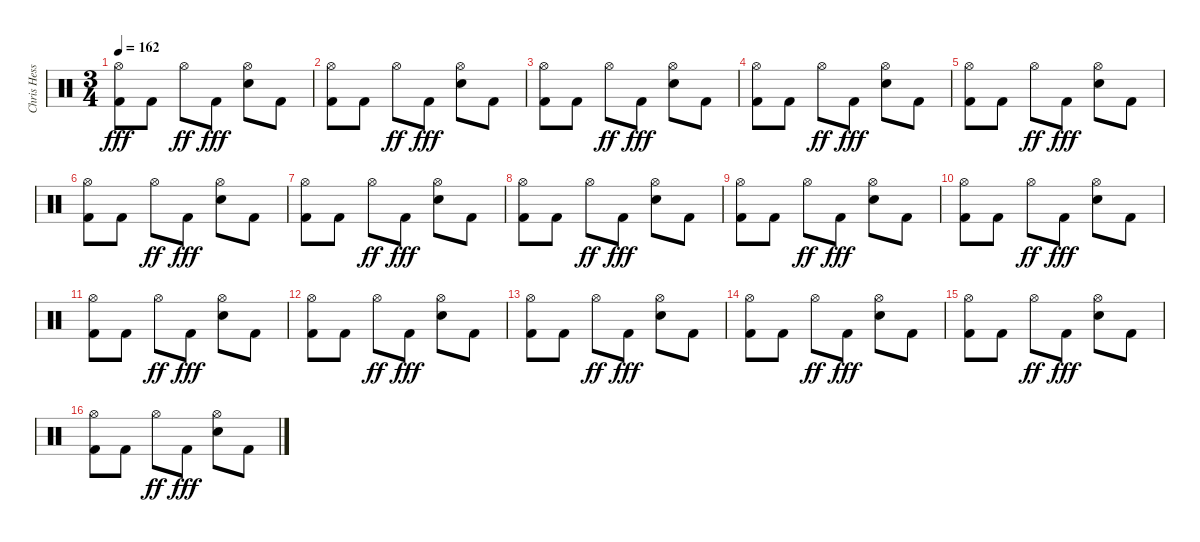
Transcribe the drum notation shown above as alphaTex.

\track ("Chris Hesse" "Chris Hess") {instrument percussion}
\staff {score}
\articulation defaults
\ts (3 4)
\tempo 162
\clef neutral
\ks c
("Hi-Hat (open)" "Kick (hit) 2").8{dy fff} "Kick (hit) 2".8 "Hi-Hat (open)".8{dy ff} "Kick (hit) 2".8{dy fff} ("Hi-Hat (open)" "Snare (hit) 2").8 "Kick (hit) 2".8 |
("Hi-Hat (open)" "Kick (hit) 2").8 "Kick (hit) 2".8 "Hi-Hat (open)".8{dy ff} "Kick (hit) 2".8{dy fff} ("Hi-Hat (open)" "Snare (hit) 2").8 "Kick (hit) 2".8 |
("Hi-Hat (open)" "Kick (hit) 2").8 "Kick (hit) 2".8 "Hi-Hat (open)".8{dy ff} "Kick (hit) 2".8{dy fff} ("Hi-Hat (open)" "Snare (hit) 2").8 "Kick (hit) 2".8 |
("Hi-Hat (open)" "Kick (hit) 2").8 "Kick (hit) 2".8 "Hi-Hat (open)".8{dy ff} "Kick (hit) 2".8{dy fff} ("Hi-Hat (open)" "Snare (hit) 2").8 "Kick (hit) 2".8 |
("Hi-Hat (open)" "Kick (hit) 2").8 "Kick (hit) 2".8 "Hi-Hat (open)".8{dy ff} "Kick (hit) 2".8{dy fff} ("Hi-Hat (open)" "Snare (hit) 2").8 "Kick (hit) 2".8 |
("Hi-Hat (open)" "Kick (hit) 2").8 "Kick (hit) 2".8 "Hi-Hat (open)".8{dy ff} "Kick (hit) 2".8{dy fff} ("Hi-Hat (open)" "Snare (hit) 2").8 "Kick (hit) 2".8 |
("Hi-Hat (open)" "Kick (hit) 2").8 "Kick (hit) 2".8 "Hi-Hat (open)".8{dy ff} "Kick (hit) 2".8{dy fff} ("Hi-Hat (open)" "Snare (hit) 2").8 "Kick (hit) 2".8 |
("Hi-Hat (open)" "Kick (hit) 2").8 "Kick (hit) 2".8 "Hi-Hat (open)".8{dy ff} "Kick (hit) 2".8{dy fff} ("Hi-Hat (open)" "Snare (hit) 2").8 "Kick (hit) 2".8 |
("Hi-Hat (open)" "Kick (hit) 2").8 "Kick (hit) 2".8 "Hi-Hat (open)".8{dy ff} "Kick (hit) 2".8{dy fff} ("Hi-Hat (open)" "Snare (hit) 2").8 "Kick (hit) 2".8 |
("Hi-Hat (open)" "Kick (hit) 2").8 "Kick (hit) 2".8 "Hi-Hat (open)".8{dy ff} "Kick (hit) 2".8{dy fff} ("Hi-Hat (open)" "Snare (hit) 2").8 "Kick (hit) 2".8 |
("Hi-Hat (open)" "Kick (hit) 2").8 "Kick (hit) 2".8 "Hi-Hat (open)".8{dy ff} "Kick (hit) 2".8{dy fff} ("Hi-Hat (open)" "Snare (hit) 2").8 "Kick (hit) 2".8 |
("Hi-Hat (open)" "Kick (hit) 2").8 "Kick (hit) 2".8 "Hi-Hat (open)".8{dy ff} "Kick (hit) 2".8{dy fff} ("Hi-Hat (open)" "Snare (hit) 2").8 "Kick (hit) 2".8 |
("Hi-Hat (open)" "Kick (hit) 2").8 "Kick (hit) 2".8 "Hi-Hat (open)".8{dy ff} "Kick (hit) 2".8{dy fff} ("Hi-Hat (open)" "Snare (hit) 2").8 "Kick (hit) 2".8 |
("Hi-Hat (open)" "Kick (hit) 2").8 "Kick (hit) 2".8 "Hi-Hat (open)".8{dy ff} "Kick (hit) 2".8{dy fff} ("Hi-Hat (open)" "Snare (hit) 2").8 "Kick (hit) 2".8 |
("Hi-Hat (open)" "Kick (hit) 2").8 "Kick (hit) 2".8 "Hi-Hat (open)".8{dy ff} "Kick (hit) 2".8{dy fff} ("Hi-Hat (open)" "Snare (hit) 2").8 "Kick (hit) 2".8 |
("Hi-Hat (open)" "Kick (hit) 2").8 "Kick (hit) 2".8 "Hi-Hat (open)".8{dy ff} "Kick (hit) 2".8{dy fff} ("Hi-Hat (open)" "Snare (hit) 2").8 "Kick (hit) 2".8
